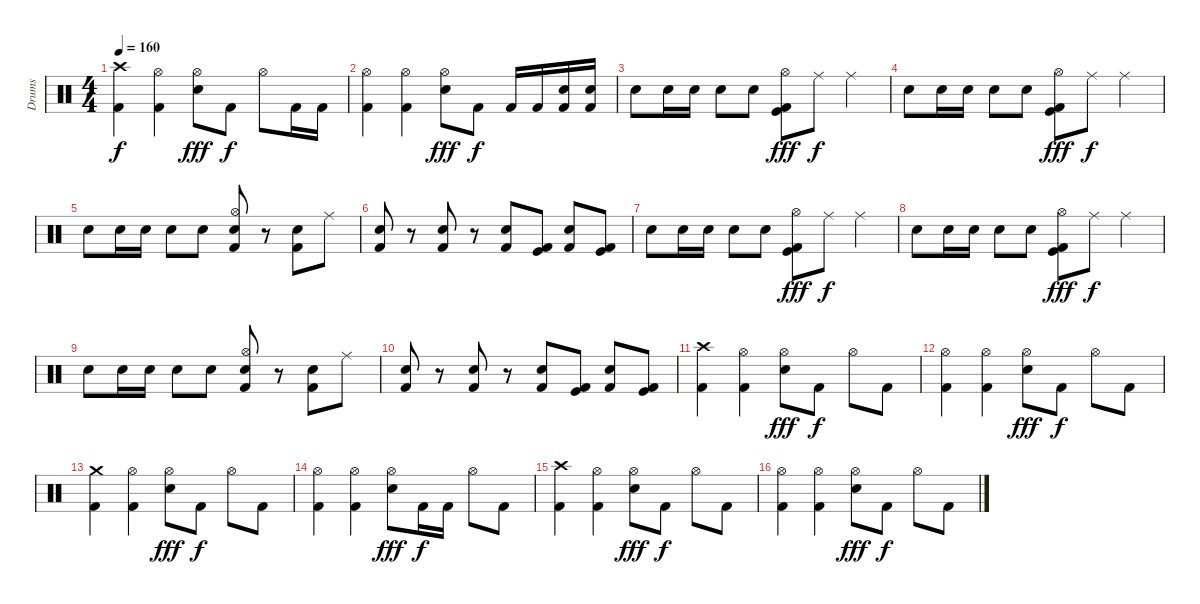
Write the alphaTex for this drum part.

\track ("Drums" "Drums") {instrument percussion}
\staff {score}
\articulation defaults
\ts (4 4)
\tempo 160
\clef neutral
\ks c
("Crash high (hit)" "Kick (hit) 2").4{dy f} ("Hi-Hat (open)" "Kick (hit) 2").4 ("Hi-Hat (open)" "Snare (hit) 2").8{dy fff} "Kick (hit) 2".8{dy f} "Hi-Hat (open)".8 "Kick (hit) 2".16 "Kick (hit) 2".16 |
("Hi-Hat (open)" "Kick (hit) 2").4 ("Hi-Hat (open)" "Kick (hit) 2").4 ("Hi-Hat (open)" "Snare (hit) 2").8{dy fff} "Kick (hit) 2".8{dy f} "Kick (hit) 2".16 "Kick (hit) 2".16 ("Snare (hit) 2" "Kick (hit) 2").16 ("Snare (hit) 2" "Kick (hit) 2").16 |
"Snare (hit) 2".8 "Snare (hit) 2".16 "Snare (hit) 2".16 "Snare (hit) 2".8 "Snare (hit) 2".8 ("Hi-Hat (open)" "Kick (hit)" "Kick (hit) 2").8{dy fff} "Ride (middle)".8{dy f} "Ride (middle)".4 |
"Snare (hit) 2".8 "Snare (hit) 2".16 "Snare (hit) 2".16 "Snare (hit) 2".8 "Snare (hit) 2".8 ("Hi-Hat (open)" "Kick (hit)" "Kick (hit) 2").8{dy fff} "Ride (middle)".8{dy f} "Ride (middle)".4 |
"Snare (hit) 2".8 "Snare (hit) 2".16 "Snare (hit) 2".16 "Snare (hit) 2".8 "Snare (hit) 2".8 ("Hi-Hat (open)" "Snare (hit) 2" "Kick (hit) 2").8 r.8 ("Snare (hit) 2" "Kick (hit) 2").8 "Ride (middle)".8 |
("Snare (hit) 2" "Kick (hit) 2").8 r.8 ("Snare (hit) 2" "Kick (hit) 2").8 r.8 ("Snare (hit) 2" "Kick (hit) 2").8 ("Kick (hit) 2" "Kick (hit)").8 ("Snare (hit) 2" "Kick (hit) 2").8 ("Kick (hit) 2" "Kick (hit)").8 |
"Snare (hit) 2".8 "Snare (hit) 2".16 "Snare (hit) 2".16 "Snare (hit) 2".8 "Snare (hit) 2".8 ("Hi-Hat (open)" "Kick (hit)" "Kick (hit) 2").8{dy fff} "Ride (middle)".8{dy f} "Ride (middle)".4 |
"Snare (hit) 2".8 "Snare (hit) 2".16 "Snare (hit) 2".16 "Snare (hit) 2".8 "Snare (hit) 2".8 ("Hi-Hat (open)" "Kick (hit)" "Kick (hit) 2").8{dy fff} "Ride (middle)".8{dy f} "Ride (middle)".4 |
"Snare (hit) 2".8 "Snare (hit) 2".16 "Snare (hit) 2".16 "Snare (hit) 2".8 "Snare (hit) 2".8 ("Hi-Hat (open)" "Snare (hit) 2" "Kick (hit) 2").8 r.8 ("Snare (hit) 2" "Kick (hit) 2").8 "Ride (middle)".8 |
("Snare (hit) 2" "Kick (hit) 2").8 r.8 ("Snare (hit) 2" "Kick (hit) 2").8 r.8 ("Snare (hit) 2" "Kick (hit) 2").8 ("Kick (hit) 2" "Kick (hit)").8 ("Snare (hit) 2" "Kick (hit) 2").8 ("Kick (hit) 2" "Kick (hit)").8 |
("Crash high (hit)" "Kick (hit) 2").4 ("Hi-Hat (open)" "Kick (hit) 2").4 ("Hi-Hat (open)" "Snare (hit) 2").8{dy fff} "Kick (hit) 2".8{dy f} "Hi-Hat (open)".8 "Kick (hit) 2".8 |
("Hi-Hat (open)" "Kick (hit) 2").4 ("Hi-Hat (open)" "Kick (hit) 2").4 ("Hi-Hat (open)" "Snare (hit) 2").8{dy fff} "Kick (hit) 2".8{dy f} "Hi-Hat (open)".8 "Kick (hit) 2".8 |
("Crash medium (hit)" "Kick (hit) 2").4 ("Hi-Hat (open)" "Kick (hit) 2").4 ("Hi-Hat (open)" "Snare (hit) 2").8{dy fff} "Kick (hit) 2".8{dy f} "Hi-Hat (open)".8 "Kick (hit) 2".8 |
("Hi-Hat (open)" "Kick (hit) 2").4 ("Hi-Hat (open)" "Kick (hit) 2").4 ("Hi-Hat (open)" "Snare (hit) 2").8{dy fff} "Kick (hit) 2".16{dy f} "Kick (hit) 2".16 "Hi-Hat (open)".8 "Kick (hit) 2".8 |
("Crash high (hit)" "Kick (hit) 2").4 ("Hi-Hat (open)" "Kick (hit) 2").4 ("Hi-Hat (open)" "Snare (hit) 2").8{dy fff} "Kick (hit) 2".8{dy f} "Hi-Hat (open)".8 "Kick (hit) 2".8 |
("Hi-Hat (open)" "Kick (hit) 2").4 ("Hi-Hat (open)" "Kick (hit) 2").4 ("Hi-Hat (open)" "Snare (hit) 2").8{dy fff} "Kick (hit) 2".8{dy f} "Hi-Hat (open)".8 "Kick (hit) 2".8
